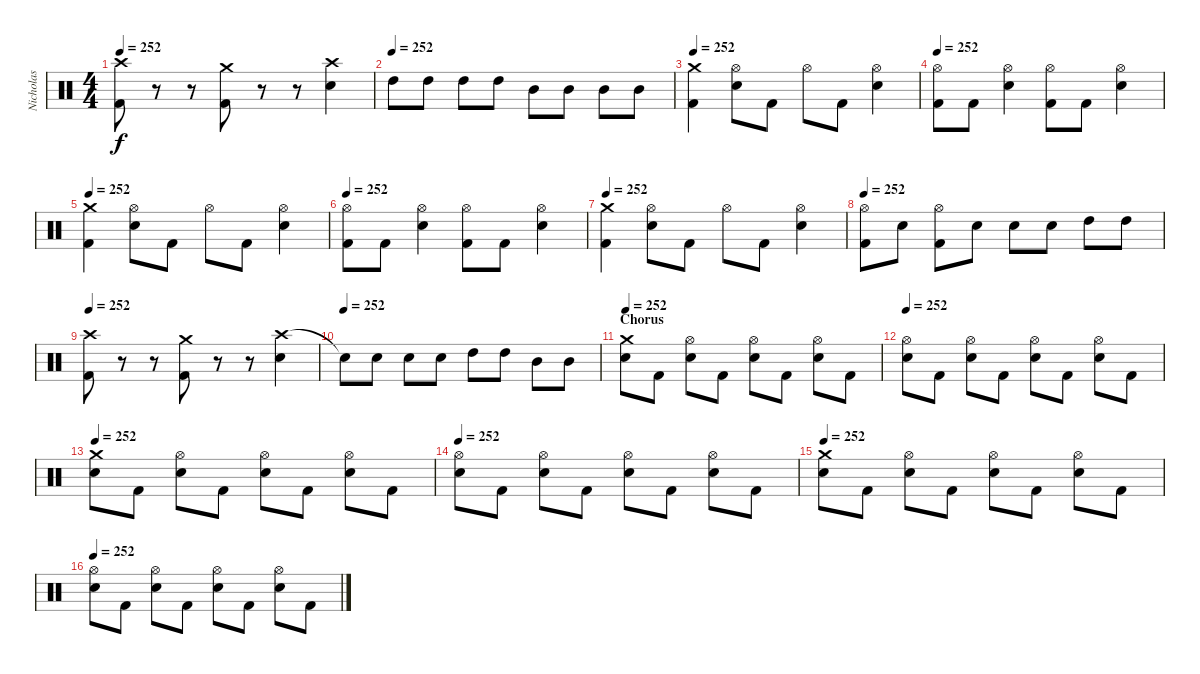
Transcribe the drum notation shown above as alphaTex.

\track ("Nicholas" "Nicholas") {instrument percussion}
\staff {score}
\articulation defaults
\ts (4 4)
\tempo 252
\clef neutral
\ks c
("Crash high (hit)" "Kick (hit) 2").8{dy f} r.8 r.8 ("Crash medium (hit)" "Kick (hit) 2").8 r.8 r.8 ("Crash high (hit)" "Snare (hit) 2").4 |
\tempo (252)
"High Tom (hit)".8 "High Tom (hit)".8 "High Tom (hit)".8 "High Tom (hit)".8 "Mid Tom (hit)".8 "Mid Tom (hit)".8 "Mid Tom (hit)".8 "Mid Tom (hit)".8 |
\tempo 252
("Crash medium (hit)" "Kick (hit) 2").4 ("Hi-Hat (open)" "Snare (hit) 2").8 "Kick (hit) 2".8 "Hi-Hat (open)".8 "Kick (hit) 2".8 ("Hi-Hat (open)" "Snare (hit) 2").4 |
\tempo 252
("Hi-Hat (open)" "Kick (hit) 2").8 "Kick (hit) 2".8 ("Hi-Hat (open)" "Snare (hit) 2").4 ("Hi-Hat (open)" "Kick (hit) 2").8 "Kick (hit) 2".8 ("Hi-Hat (open)" "Snare (hit) 2").4 |
\tempo 252
("Crash medium (hit)" "Kick (hit) 2").4 ("Hi-Hat (open)" "Snare (hit) 2").8 "Kick (hit) 2".8 "Hi-Hat (open)".8 "Kick (hit) 2".8 ("Hi-Hat (open)" "Snare (hit) 2").4 |
\tempo 252
("Hi-Hat (open)" "Kick (hit) 2").8 "Kick (hit) 2".8 ("Hi-Hat (open)" "Snare (hit) 2").4 ("Hi-Hat (open)" "Kick (hit) 2").8 "Kick (hit) 2".8 ("Hi-Hat (open)" "Snare (hit) 2").4 |
\tempo 252
("Crash medium (hit)" "Kick (hit) 2").4 ("Hi-Hat (open)" "Snare (hit) 2").8 "Kick (hit) 2".8 "Hi-Hat (open)".8 "Kick (hit) 2".8 ("Hi-Hat (open)" "Snare (hit) 2").4 |
\tempo 252
("Hi-Hat (open)" "Kick (hit) 2").8 "Snare (hit) 2".8 ("Hi-Hat (open)" "Kick (hit) 2").8 "Snare (hit) 2".8 "Snare (hit) 2".8 "Snare (hit) 2".8 "High Tom (hit)".8 "High Tom (hit)".8 |
\tempo 252
("Crash high (hit)" "Kick (hit) 2").8 r.8 r.8 ("Crash medium (hit)" "Kick (hit) 2").8 r.8 r.8 ("Crash high (hit)" "Snare (hit) 2").4 |
\tempo (252)
"Snare (hit) 2"{t}.8 "Snare (hit) 2".8 "Snare (hit) 2".8 "Snare (hit) 2".8 "High Tom (hit)".8 "High Tom (hit)".8 "Mid Tom (hit)".8 "Mid Tom (hit)".8 |
\section ("" "Chorus")
\tempo 252
("Crash medium (hit)" "Snare (hit) 2").8 "Kick (hit) 2".8 ("Hi-Hat (open)" "Snare (hit) 2").8 "Kick (hit) 2".8 ("Hi-Hat (open)" "Snare (hit) 2").8 "Kick (hit) 2".8 ("Hi-Hat (open)" "Snare (hit) 2").8 "Kick (hit) 2".8 |
\tempo 252
("Hi-Hat (open)" "Snare (hit) 2").8 "Kick (hit) 2".8 ("Hi-Hat (open)" "Snare (hit) 2").8 "Kick (hit) 2".8 ("Hi-Hat (open)" "Snare (hit) 2").8 "Kick (hit) 2".8 ("Hi-Hat (open)" "Snare (hit) 2").8 "Kick (hit) 2".8 |
\tempo 252
("Crash medium (hit)" "Snare (hit) 2").8 "Kick (hit) 2".8 ("Hi-Hat (open)" "Snare (hit) 2").8 "Kick (hit) 2".8 ("Hi-Hat (open)" "Snare (hit) 2").8 "Kick (hit) 2".8 ("Hi-Hat (open)" "Snare (hit) 2").8 "Kick (hit) 2".8 |
\tempo 252
("Hi-Hat (open)" "Snare (hit) 2").8 "Kick (hit) 2".8 ("Hi-Hat (open)" "Snare (hit) 2").8 "Kick (hit) 2".8 ("Hi-Hat (open)" "Snare (hit) 2").8 "Kick (hit) 2".8 ("Hi-Hat (open)" "Snare (hit) 2").8 "Kick (hit) 2".8 |
\tempo 252
("Crash medium (hit)" "Snare (hit) 2").8 "Kick (hit) 2".8 ("Hi-Hat (open)" "Snare (hit) 2").8 "Kick (hit) 2".8 ("Hi-Hat (open)" "Snare (hit) 2").8 "Kick (hit) 2".8 ("Hi-Hat (open)" "Snare (hit) 2").8 "Kick (hit) 2".8 |
\tempo 252
("Hi-Hat (open)" "Snare (hit) 2").8 "Kick (hit) 2".8 ("Hi-Hat (open)" "Snare (hit) 2").8 "Kick (hit) 2".8 ("Hi-Hat (open)" "Snare (hit) 2").8 "Kick (hit) 2".8 ("Hi-Hat (open)" "Snare (hit) 2").8 "Kick (hit) 2".8
